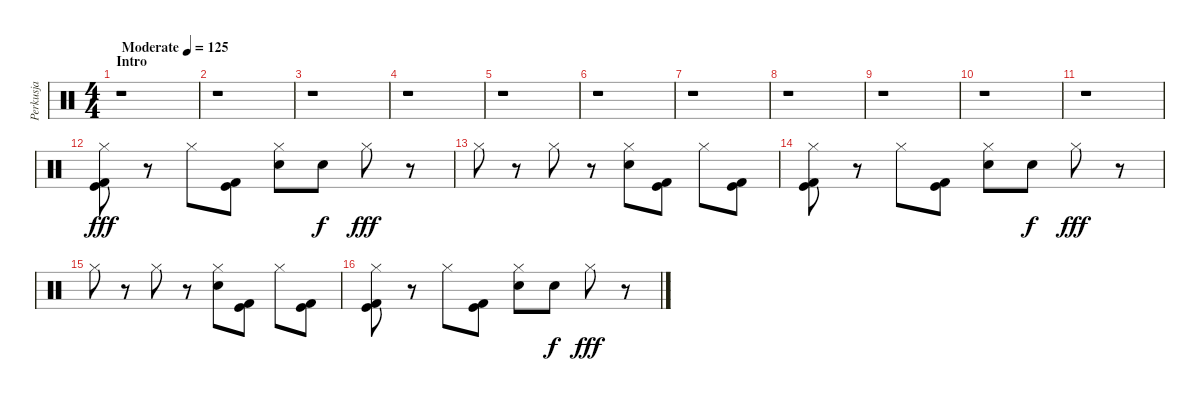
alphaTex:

\track ("Perkusja" "Perkusja") {instrument percussion}
\staff {score}
\articulation defaults
\ts (4 4)
\section ("" "Intro")
\tempo (125 "Moderate")
\clef neutral
\ks c
r.1{dy fff} |
r.1 |
r.1 |
r.1 |
r.1 |
r.1 |
r.1 |
r.1 |
r.1 |
r.1 |
r.1 |
("Hi-Hat (closed)" "Kick (hit)" "Kick (hit) 2").8 r.8 "Hi-Hat (closed)".8 ("Kick (hit)" "Kick (hit) 2").8 ("Hi-Hat (closed)" "Electric Snare (hit)").8 "Electric Snare (hit)".8{dy f} "Hi-Hat (closed)".8{dy fff} r.8 |
"Hi-Hat (closed)".8 r.8 "Hi-Hat (closed)".8 r.8 ("Hi-Hat (closed)" "Electric Snare (hit)").8 ("Kick (hit)" "Kick (hit) 2").8 "Hi-Hat (closed)".8 ("Kick (hit)" "Kick (hit) 2").8 |
("Hi-Hat (closed)" "Kick (hit)" "Kick (hit) 2").8 r.8 "Hi-Hat (closed)".8 ("Kick (hit)" "Kick (hit) 2").8 ("Hi-Hat (closed)" "Electric Snare (hit)").8 "Electric Snare (hit)".8{dy f} "Hi-Hat (closed)".8{dy fff} r.8 |
"Hi-Hat (closed)".8 r.8 "Hi-Hat (closed)".8 r.8 ("Hi-Hat (closed)" "Electric Snare (hit)").8 ("Kick (hit)" "Kick (hit) 2").8 "Hi-Hat (closed)".8 ("Kick (hit)" "Kick (hit) 2").8 |
("Hi-Hat (closed)" "Kick (hit)" "Kick (hit) 2").8 r.8 "Hi-Hat (closed)".8 ("Kick (hit)" "Kick (hit) 2").8 ("Hi-Hat (closed)" "Electric Snare (hit)").8 "Electric Snare (hit)".8{dy f} "Hi-Hat (closed)".8{dy fff} r.8
